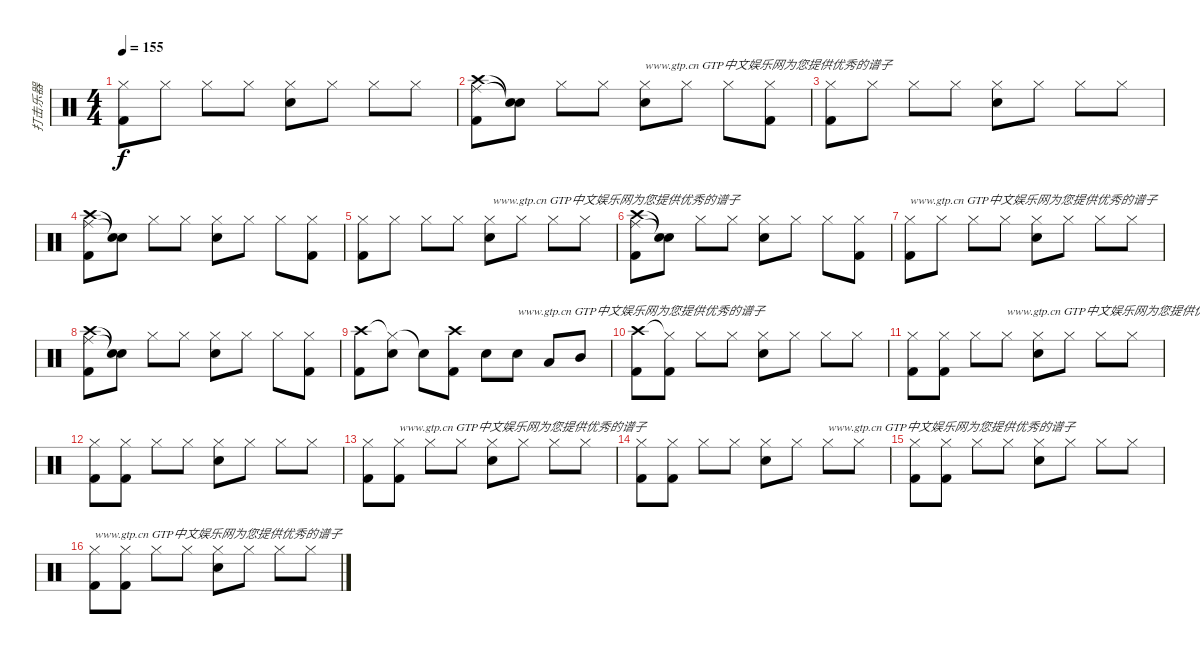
\track ("打击乐器" "打击乐器") {instrument percussion}
\staff {score}
\articulation defaults
\ts (4 4)
\tempo 155
\clef neutral
\ks c
("Hi-Hat (closed)" "Kick (hit) 2").8{dy f} "Hi-Hat (closed)".8 "Hi-Hat (closed)".8 "Hi-Hat (closed)".8 ("Hi-Hat (closed)" "Snare (hit) 2").8 "Hi-Hat (closed)".8 "Hi-Hat (closed)".8 "Hi-Hat (closed)".8 |
("Crash high (hit)" "Ride (middle)" "Kick (hit) 2").8 ("Snare (hit)"{t} "Snare (hit)"{t}).8 "Hi-Hat (closed)".8 "Hi-Hat (closed)".8 ("Hi-Hat (closed)" "Snare (hit) 2").8{txt "www.gtp.cn GTP中文娱乐网为您提供优秀的谱子"} "Hi-Hat (closed)".8 "Hi-Hat (closed)".8 ("Hi-Hat (closed)" "Kick (hit) 2").8 |
("Hi-Hat (closed)" "Kick (hit) 2").8 "Hi-Hat (closed)".8 "Hi-Hat (closed)".8 "Hi-Hat (closed)".8 ("Hi-Hat (closed)" "Snare (hit) 2").8 "Hi-Hat (closed)".8 "Hi-Hat (closed)".8 "Hi-Hat (closed)".8 |
("Crash high (hit)" "Ride (middle)" "Kick (hit) 2").8 ("Snare (hit)"{t} "Snare (hit)"{t}).8 "Hi-Hat (closed)".8 "Hi-Hat (closed)".8 ("Hi-Hat (closed)" "Snare (hit) 2").8 "Hi-Hat (closed)".8 "Hi-Hat (closed)".8 ("Hi-Hat (closed)" "Kick (hit) 2").8 |
("Hi-Hat (closed)" "Kick (hit) 2").8 "Hi-Hat (closed)".8 "Hi-Hat (closed)".8 "Hi-Hat (closed)".8 ("Hi-Hat (closed)" "Snare (hit) 2").8{txt " www.gtp.cn GTP中文娱乐网为您提供优秀的谱子"} "Hi-Hat (closed)".8 "Hi-Hat (closed)".8 "Hi-Hat (closed)".8 |
("Crash high (hit)" "Ride (middle)" "Kick (hit) 2").8 ("Snare (hit)"{t} "Snare (hit)"{t}).8 "Hi-Hat (closed)".8 "Hi-Hat (closed)".8 ("Hi-Hat (closed)" "Snare (hit) 2").8 "Hi-Hat (closed)".8 "Hi-Hat (closed)".8 ("Hi-Hat (closed)" "Kick (hit) 2").8 |
("Hi-Hat (closed)" "Kick (hit) 2").8{txt "www.gtp.cn GTP中文娱乐网为您提供优秀的谱子"} "Hi-Hat (closed)".8 "Hi-Hat (closed)".8 "Hi-Hat (closed)".8 ("Hi-Hat (closed)" "Snare (hit) 2").8 "Hi-Hat (closed)".8 "Hi-Hat (closed)".8 "Hi-Hat (closed)".8 |
("Crash high (hit)" "Ride (middle)" "Kick (hit) 2").8 ("Snare (hit)"{t} "Snare (hit)"{t}).8 "Hi-Hat (closed)".8 "Hi-Hat (closed)".8 ("Hi-Hat (closed)" "Snare (hit) 2").8 "Hi-Hat (closed)".8 "Hi-Hat (closed)".8 ("Hi-Hat (closed)" "Kick (hit) 2").8 |
("Crash high (hit)" "Kick (hit) 2").8 ("Hi-Hat (closed)"{t} "Snare (hit) 2").8 "Snare (hit) 2"{t}.8 ("Crash high (hit)" "Kick (hit) 2").8 "Snare (hit) 2".8 "Snare (hit) 2".8{txt "www.gtp.cn GTP中文娱乐网为您提供优秀的谱子"} "Low Tom (hit)".8 "Mid Tom (hit)".8 |
("Crash high (hit)" "Kick (hit) 2").8 ("Hi-Hat (closed)"{t} "Kick (hit) 2").8 "Hi-Hat (closed)".8 "Hi-Hat (closed)".8 ("Hi-Hat (closed)" "Snare (hit) 2").8 "Hi-Hat (closed)".8 "Hi-Hat (closed)".8 "Hi-Hat (closed)".8 |
("Hi-Hat (closed)" "Kick (hit) 2").8 ("Hi-Hat (closed)" "Kick (hit) 2").8 "Hi-Hat (closed)".8 "Hi-Hat (closed)".8{txt "www.gtp.cn GTP中文娱乐网为您提供优秀的谱子"} ("Hi-Hat (closed)" "Snare (hit) 2").8 "Hi-Hat (closed)".8 "Hi-Hat (closed)".8 "Hi-Hat (closed)".8 |
("Hi-Hat (closed)" "Kick (hit) 2").8 ("Hi-Hat (closed)" "Kick (hit) 2").8 "Hi-Hat (closed)".8 "Hi-Hat (closed)".8 ("Hi-Hat (closed)" "Snare (hit) 2").8 "Hi-Hat (closed)".8 "Hi-Hat (closed)".8 "Hi-Hat (closed)".8 |
("Hi-Hat (closed)" "Kick (hit) 2").8 ("Hi-Hat (closed)" "Kick (hit) 2").8{txt "www.gtp.cn GTP中文娱乐网为您提供优秀的谱子"} "Hi-Hat (closed)".8 "Hi-Hat (closed)".8 ("Hi-Hat (closed)" "Snare (hit) 2").8 "Hi-Hat (closed)".8 "Hi-Hat (closed)".8 "Hi-Hat (closed)".8 |
("Hi-Hat (closed)" "Kick (hit) 2").8 ("Hi-Hat (closed)" "Kick (hit) 2").8 "Hi-Hat (closed)".8 "Hi-Hat (closed)".8 ("Hi-Hat (closed)" "Snare (hit) 2").8 "Hi-Hat (closed)".8 "Hi-Hat (closed)".8{txt "www.gtp.cn GTP中文娱乐网为您提供优秀的谱子"} "Hi-Hat (closed)".8 |
("Hi-Hat (closed)" "Kick (hit) 2").8 ("Hi-Hat (closed)" "Kick (hit) 2").8 "Hi-Hat (closed)".8 "Hi-Hat (closed)".8 ("Hi-Hat (closed)" "Snare (hit) 2").8 "Hi-Hat (closed)".8 "Hi-Hat (closed)".8 "Hi-Hat (closed)".8 |
("Hi-Hat (closed)" "Kick (hit) 2").8{txt "www.gtp.cn GTP中文娱乐网为您提供优秀的谱子"} ("Hi-Hat (closed)" "Kick (hit) 2").8 "Hi-Hat (closed)".8 "Hi-Hat (closed)".8 ("Hi-Hat (closed)" "Snare (hit) 2").8 "Hi-Hat (closed)".8 "Hi-Hat (closed)".8 "Hi-Hat (closed)".8
